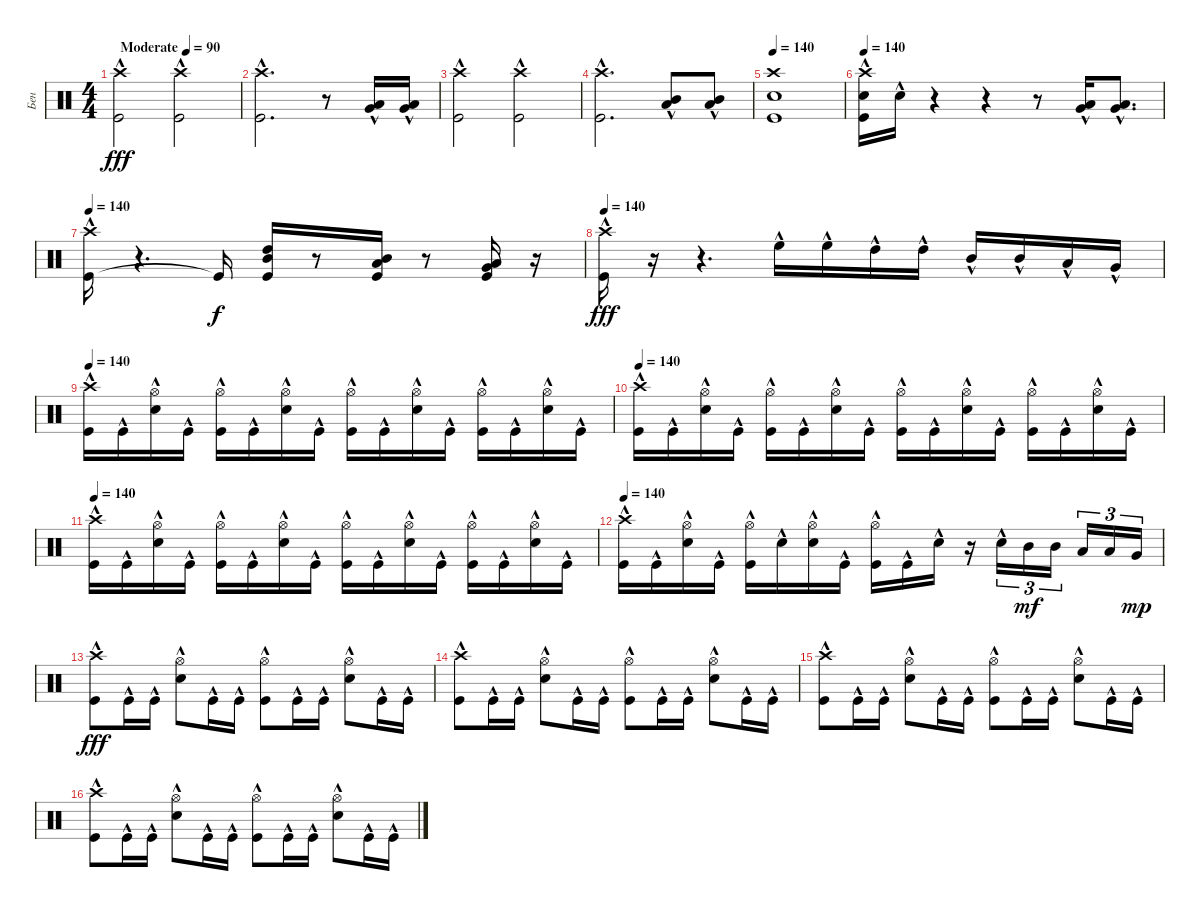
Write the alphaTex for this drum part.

\track ("Бен" "Бен") {instrument percussion}
\staff {score}
\articulation defaults
\ts (4 4)
\tempo (90 "Moderate")
\clef neutral
\ks c
("Crash high (hit)"{hac} "Kick (hit)"{hac}).2{dy fff} ("Crash high (hit)"{hac} "Kick (hit)"{hac}).2 |
("Crash high (hit)"{hac} "Kick (hit)"{hac}).2{d} r.8 ("Low Tom (hit)"{hac} "Very Low Tom (hit)"{hac}).16 ("Very Low Tom (hit)"{hac} "Low Floor Tom (hit)"{hac}).16 |
("Crash high (hit)"{hac} "Kick (hit)"{hac}).2 ("Crash high (hit)"{hac} "Kick (hit)"{hac}).2 |
("Crash high (hit)"{hac} "Kick (hit)"{hac}).2{d} ("Mid Tom (hit)"{hac} "Low Tom (hit)"{hac}).8 ("Mid Tom (hit)"{hac} "Low Tom (hit)"{hac}).8 |
\tempo 140
("Kick (hit)" "Crash high (hit)" "Snare (hit) 2").1 |
\tempo 140
("Crash high (hit)" "Kick (hit)" "Snare (hit) 2"{hac}).16 "Snare (hit) 2"{hac}.16 r.4 r.4 r.8 ("Low Tom (hit)"{hac} "Very Low Tom (hit)"{hac}).16 ("Low Tom (hit)"{hac} "Very Low Tom (hit)"{hac}).8{d} |
\tempo 140
("Kick (hit)"{hac} "Crash high (hit)"{hac}).16 r.4{d} "Kick (hit)"{t}.16{dy f} ("High Tom (hit)" "Kick (hit)" "Mid Tom (hit)").16 r.8 ("Mid Tom (hit)" "Kick (hit)" "Low Tom (hit)").16 r.8 ("Very Low Tom (hit)" "Kick (hit)" "Low Tom (hit)").16 r.16 |
\tempo 140
("Kick (hit)"{hac} "Crash high (hit)"{hac}).16{dy fff} r.16 r.4{d} "High Floor Tom (hit)"{hac}.16 "High Floor Tom (hit)"{hac}.16 "High Tom (hit)"{hac}.16 "High Tom (hit)"{hac}.16 "Mid Tom (hit)"{hac}.16 "Mid Tom (hit)"{hac}.16 "Low Tom (hit)"{hac}.16 "Very Low Tom (hit)"{hac}.16 |
\tempo 140
("Kick (hit)"{hac} "Crash high (hit)"{hac}).16 "Kick (hit)"{hac}.16 ("Snare (hit) 2"{hac} "Hi-Hat (open)").16 "Kick (hit)"{hac}.16 ("Kick (hit)"{hac} "Hi-Hat (open)").16 "Kick (hit)"{hac}.16 ("Snare (hit) 2"{hac} "Hi-Hat (open)").16 "Kick (hit)"{hac}.16 ("Kick (hit)"{hac} "Hi-Hat (open)").16 "Kick (hit)"{hac}.16 ("Snare (hit) 2"{hac} "Hi-Hat (open)").16 "Kick (hit)"{hac}.16 ("Kick (hit)"{hac} "Hi-Hat (open)").16 "Kick (hit)"{hac}.16 ("Snare (hit) 2"{hac} "Hi-Hat (open)").16 "Kick (hit)"{hac}.16 |
\tempo 140
("Kick (hit)"{hac} "Crash high (hit)"{hac}).16 "Kick (hit)"{hac}.16 ("Snare (hit) 2"{hac} "Hi-Hat (open)").16 "Kick (hit)"{hac}.16 ("Kick (hit)"{hac} "Hi-Hat (open)").16 "Kick (hit)"{hac}.16 ("Snare (hit) 2"{hac} "Hi-Hat (open)").16 "Kick (hit)"{hac}.16 ("Kick (hit)"{hac} "Hi-Hat (open)").16 "Kick (hit)"{hac}.16 ("Snare (hit) 2"{hac} "Hi-Hat (open)").16 "Kick (hit)"{hac}.16 ("Kick (hit)"{hac} "Hi-Hat (open)").16 "Kick (hit)"{hac}.16 ("Snare (hit) 2"{hac} "Hi-Hat (open)").16 "Kick (hit)"{hac}.16 |
\tempo 140
("Kick (hit)"{hac} "Crash high (hit)"{hac}).16 "Kick (hit)"{hac}.16 ("Snare (hit) 2"{hac} "Hi-Hat (open)").16 "Kick (hit)"{hac}.16 ("Kick (hit)"{hac} "Hi-Hat (open)").16 "Kick (hit)"{hac}.16 ("Snare (hit) 2"{hac} "Hi-Hat (open)").16 "Kick (hit)"{hac}.16 ("Kick (hit)"{hac} "Hi-Hat (open)").16 "Kick (hit)"{hac}.16 ("Snare (hit) 2"{hac} "Hi-Hat (open)").16 "Kick (hit)"{hac}.16 ("Kick (hit)"{hac} "Hi-Hat (open)").16 "Kick (hit)"{hac}.16 ("Snare (hit) 2"{hac} "Hi-Hat (open)").16 "Kick (hit)"{hac}.16 |
\tempo 140
("Kick (hit)"{hac} "Crash high (hit)"{hac}).16 "Kick (hit)"{hac}.16 ("Snare (hit) 2"{hac} "Hi-Hat (open)").16 "Kick (hit)"{hac}.16 ("Kick (hit)"{hac} "Hi-Hat (open)").16 "Snare (hit)"{hac}.16 ("Snare (hit) 2"{hac} "Hi-Hat (open)").16 "Kick (hit)"{hac}.16 ("Kick (hit)"{hac} "Hi-Hat (open)").16 "Kick (hit)"{hac}.16 "Snare (hit) 2"{hac}.16 r.16 "Snare (hit) 2"{hac}.16{tu (3 2)} "Mid Tom (hit)".16{tu (3 2) dy mf} "Mid Tom (hit)".16{tu (3 2) beam splitsecondary} "Low Tom (hit)".16{tu (3 2)} "Low Tom (hit)".16{tu (3 2)} "Very Low Tom (hit)".16{tu (3 2) dy mp} |
("Kick (hit)"{hac} "Crash high (hit)"{hac}).8{dy fff} "Kick (hit)"{hac}.16 "Kick (hit)"{hac}.16 ("Snare (hit) 2"{hac} "Hi-Hat (open)").8 "Kick (hit)"{hac}.16 "Kick (hit)"{hac}.16 ("Kick (hit)"{hac} "Hi-Hat (open)").8 "Kick (hit)"{hac}.16 "Kick (hit)"{hac}.16 ("Snare (hit) 2"{hac} "Hi-Hat (open)").8 "Kick (hit)"{hac}.16 "Kick (hit)"{hac}.16 |
("Kick (hit)"{hac} "Crash high (hit)"{hac}).8 "Kick (hit)"{hac}.16 "Kick (hit)"{hac}.16 ("Snare (hit) 2"{hac} "Hi-Hat (open)").8 "Kick (hit)"{hac}.16 "Kick (hit)"{hac}.16 ("Kick (hit)"{hac} "Hi-Hat (open)").8 "Kick (hit)"{hac}.16 "Kick (hit)"{hac}.16 ("Snare (hit) 2"{hac} "Hi-Hat (open)").8 "Kick (hit)"{hac}.16 "Kick (hit)"{hac}.16 |
("Kick (hit)"{hac} "Crash high (hit)"{hac}).8 "Kick (hit)"{hac}.16 "Kick (hit)"{hac}.16 ("Snare (hit) 2"{hac} "Hi-Hat (open)").8 "Kick (hit)"{hac}.16 "Kick (hit)"{hac}.16 ("Kick (hit)"{hac} "Hi-Hat (open)").8 "Kick (hit)"{hac}.16 "Kick (hit)"{hac}.16 ("Snare (hit) 2"{hac} "Hi-Hat (open)").8 "Kick (hit)"{hac}.16 "Kick (hit)"{hac}.16 |
("Kick (hit)"{hac} "Crash high (hit)"{hac}).8 "Kick (hit)"{hac}.16 "Kick (hit)"{hac}.16 ("Snare (hit) 2"{hac} "Hi-Hat (open)").8 "Kick (hit)"{hac}.16 "Kick (hit)"{hac}.16 ("Kick (hit)"{hac} "Hi-Hat (open)").8 "Kick (hit)"{hac}.16 "Kick (hit)"{hac}.16 ("Snare (hit) 2"{hac} "Hi-Hat (open)").8 "Kick (hit)"{hac}.16 "Kick (hit)"{hac}.16
